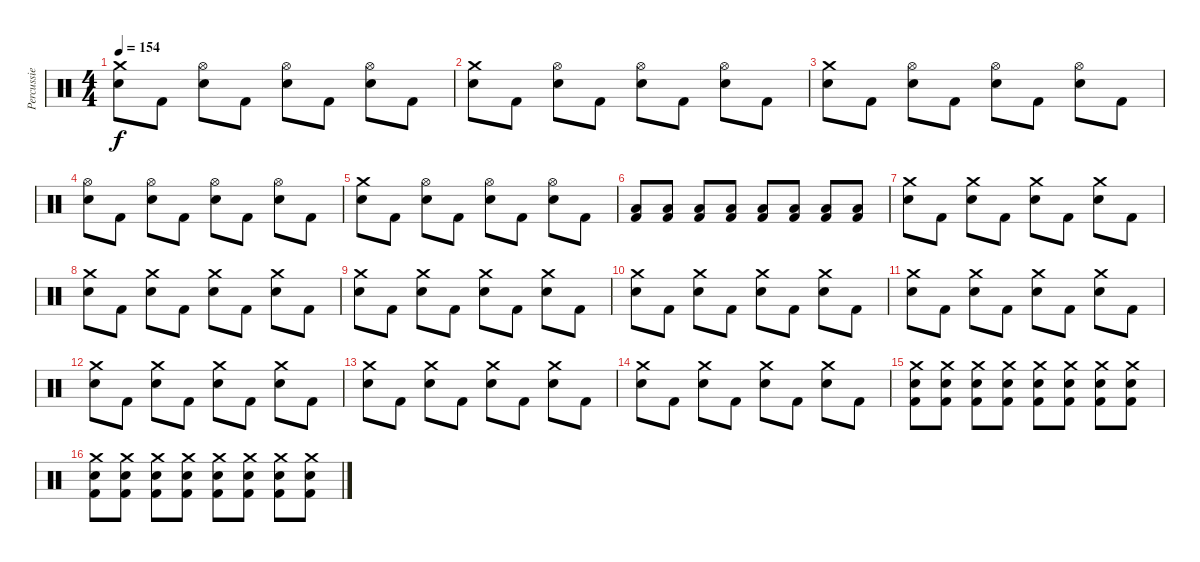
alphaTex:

\track ("Percussie" "Percussie") {instrument percussion}
\staff {score}
\articulation defaults
\ts (4 4)
\tempo 154
\clef neutral
\ks c
("Crash medium (hit)" "Snare (hit) 2").8{dy f} "Kick (hit) 2".8 ("Hi-Hat (open)" "Snare (hit) 2").8 "Kick (hit) 2".8 ("Hi-Hat (open)" "Snare (hit) 2").8 "Kick (hit) 2".8 ("Hi-Hat (open)" "Snare (hit) 2").8 "Kick (hit) 2".8 |
("Crash medium (hit)" "Snare (hit) 2").8 "Kick (hit) 2".8 ("Hi-Hat (open)" "Snare (hit) 2").8 "Kick (hit) 2".8 ("Hi-Hat (open)" "Snare (hit) 2").8 "Kick (hit) 2".8 ("Hi-Hat (open)" "Snare (hit) 2").8 "Kick (hit) 2".8 |
("Crash medium (hit)" "Snare (hit) 2").8 "Kick (hit) 2".8 ("Hi-Hat (open)" "Snare (hit) 2").8 "Kick (hit) 2".8 ("Hi-Hat (open)" "Snare (hit) 2").8 "Kick (hit) 2".8 ("Hi-Hat (open)" "Snare (hit) 2").8 "Kick (hit) 2".8 |
("Hi-Hat (open)" "Snare (hit) 2").8 "Kick (hit) 2".8 ("Hi-Hat (open)" "Snare (hit) 2").8 "Kick (hit) 2".8 ("Hi-Hat (open)" "Snare (hit) 2").8 "Kick (hit) 2".8 ("Hi-Hat (open)" "Snare (hit) 2").8 "Kick (hit) 2".8 |
("Crash medium (hit)" "Snare (hit) 2").8 "Kick (hit) 2".8 ("Hi-Hat (open)" "Snare (hit) 2").8 "Kick (hit) 2".8 ("Hi-Hat (open)" "Snare (hit) 2").8 "Kick (hit) 2".8 ("Hi-Hat (open)" "Snare (hit) 2").8 "Kick (hit) 2".8 |
("Low Tom (hit)" "Kick (hit) 2").8 ("Low Tom (hit)" "Kick (hit) 2").8 ("Low Tom (hit)" "Kick (hit) 2").8 ("Low Tom (hit)" "Kick (hit) 2").8 ("Low Tom (hit)" "Kick (hit) 2").8 ("Low Tom (hit)" "Kick (hit) 2").8 ("Low Tom (hit)" "Kick (hit) 2").8 ("Low Tom (hit)" "Kick (hit) 2").8 |
("Crash medium (hit)" "Snare (hit) 2").8 "Kick (hit) 2".8 ("Crash medium (hit)" "Snare (hit) 2").8 "Kick (hit) 2".8 ("Crash medium (hit)" "Snare (hit) 2").8 "Kick (hit) 2".8 ("Crash medium (hit)" "Snare (hit) 2").8 "Kick (hit) 2".8 |
("Crash medium (hit)" "Snare (hit) 2").8 "Kick (hit) 2".8 ("Crash medium (hit)" "Snare (hit) 2").8 "Kick (hit) 2".8 ("Crash medium (hit)" "Snare (hit) 2").8 "Kick (hit) 2".8 ("Crash medium (hit)" "Snare (hit) 2").8 "Kick (hit) 2".8 |
("Crash medium (hit)" "Snare (hit) 2").8 "Kick (hit) 2".8 ("Crash medium (hit)" "Snare (hit) 2").8 "Kick (hit) 2".8 ("Crash medium (hit)" "Snare (hit) 2").8 "Kick (hit) 2".8 ("Crash medium (hit)" "Snare (hit) 2").8 "Kick (hit) 2".8 |
("Crash medium (hit)" "Snare (hit) 2").8 "Kick (hit) 2".8 ("Crash medium (hit)" "Snare (hit) 2").8 "Kick (hit) 2".8 ("Crash medium (hit)" "Snare (hit) 2").8 "Kick (hit) 2".8 ("Crash medium (hit)" "Snare (hit) 2").8 "Kick (hit) 2".8 |
("Crash medium (hit)" "Snare (hit) 2").8 "Kick (hit) 2".8 ("Crash medium (hit)" "Snare (hit) 2").8 "Kick (hit) 2".8 ("Crash medium (hit)" "Snare (hit) 2").8 "Kick (hit) 2".8 ("Crash medium (hit)" "Snare (hit) 2").8 "Kick (hit) 2".8 |
("Crash medium (hit)" "Snare (hit) 2").8 "Kick (hit) 2".8 ("Crash medium (hit)" "Snare (hit) 2").8 "Kick (hit) 2".8 ("Crash medium (hit)" "Snare (hit) 2").8 "Kick (hit) 2".8 ("Crash medium (hit)" "Snare (hit) 2").8 "Kick (hit) 2".8 |
("Crash medium (hit)" "Snare (hit) 2").8 "Kick (hit) 2".8 ("Crash medium (hit)" "Snare (hit) 2").8 "Kick (hit) 2".8 ("Crash medium (hit)" "Snare (hit) 2").8 "Kick (hit) 2".8 ("Crash medium (hit)" "Snare (hit) 2").8 "Kick (hit) 2".8 |
("Crash medium (hit)" "Snare (hit) 2").8 "Kick (hit) 2".8 ("Crash medium (hit)" "Snare (hit) 2").8 "Kick (hit) 2".8 ("Crash medium (hit)" "Snare (hit) 2").8 "Kick (hit) 2".8 ("Crash medium (hit)" "Snare (hit) 2").8 "Kick (hit) 2".8 |
("Crash medium (hit)" "Snare (hit) 2" "Kick (hit) 2").8 ("Crash medium (hit)" "Snare (hit) 2" "Kick (hit) 2").8 ("Crash medium (hit)" "Snare (hit) 2" "Kick (hit) 2").8 ("Crash medium (hit)" "Snare (hit) 2" "Kick (hit) 2").8 ("Crash medium (hit)" "Snare (hit) 2" "Kick (hit) 2").8 ("Crash medium (hit)" "Snare (hit) 2" "Kick (hit) 2").8 ("Crash medium (hit)" "Snare (hit) 2" "Kick (hit) 2").8 ("Crash medium (hit)" "Snare (hit) 2" "Kick (hit) 2").8 |
("Crash medium (hit)" "Snare (hit) 2" "Kick (hit) 2").8 ("Crash medium (hit)" "Snare (hit) 2" "Kick (hit) 2").8 ("Crash medium (hit)" "Snare (hit) 2" "Kick (hit) 2").8 ("Crash medium (hit)" "Snare (hit) 2" "Kick (hit) 2").8 ("Crash medium (hit)" "Snare (hit) 2" "Kick (hit) 2").8 ("Crash medium (hit)" "Snare (hit) 2" "Kick (hit) 2").8 ("Crash medium (hit)" "Snare (hit) 2" "Kick (hit) 2").8 ("Crash medium (hit)" "Snare (hit) 2" "Kick (hit) 2").8
